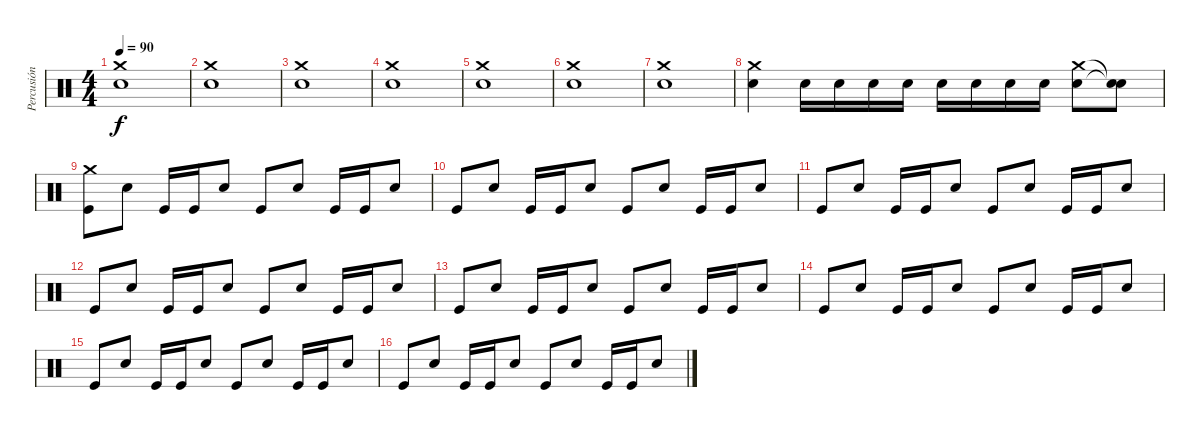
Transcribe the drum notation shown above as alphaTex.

\track ("Percusión" "Percusión") {instrument percussion}
\staff {score}
\articulation defaults
\ts (4 4)
\tempo 90
\clef neutral
\ks c
("Crash medium (hit)" "Electric Snare (hit)").1{dy f} |
("Crash medium (hit)" "Electric Snare (hit)").1 |
("Crash medium (hit)" "Electric Snare (hit)").1 |
("Crash medium (hit)" "Electric Snare (hit)").1 |
("Crash medium (hit)" "Electric Snare (hit)").1 |
("Crash medium (hit)" "Electric Snare (hit)").1 |
("Crash medium (hit)" "Electric Snare (hit)").1 |
("Crash medium (hit)" "Electric Snare (hit)").4 "Electric Snare (hit)".16 "Electric Snare (hit)".16 "Electric Snare (hit)".16 "Electric Snare (hit)".16 "Electric Snare (hit)".16 "Electric Snare (hit)".16 "Electric Snare (hit)".16 "Electric Snare (hit)".16 ("Crash medium (hit)" "Electric Snare (hit)").8 ("Snare (hit)"{t} "Snare (hit)"{t}).8 |
("Crash medium (hit)" "Kick (hit)").8 "Electric Snare (hit)".8 "Kick (hit)".16 "Kick (hit)".16 "Electric Snare (hit)".8 "Kick (hit)".8 "Electric Snare (hit)".8 "Kick (hit)".16 "Kick (hit)".16 "Electric Snare (hit)".8 |
"Kick (hit)".8 "Electric Snare (hit)".8 "Kick (hit)".16 "Kick (hit)".16 "Electric Snare (hit)".8 "Kick (hit)".8 "Electric Snare (hit)".8 "Kick (hit)".16 "Kick (hit)".16 "Electric Snare (hit)".8 |
"Kick (hit)".8 "Electric Snare (hit)".8 "Kick (hit)".16 "Kick (hit)".16 "Electric Snare (hit)".8 "Kick (hit)".8 "Electric Snare (hit)".8 "Kick (hit)".16 "Kick (hit)".16 "Electric Snare (hit)".8 |
"Kick (hit)".8 "Electric Snare (hit)".8 "Kick (hit)".16 "Kick (hit)".16 "Electric Snare (hit)".8 "Kick (hit)".8 "Electric Snare (hit)".8 "Kick (hit)".16 "Kick (hit)".16 "Electric Snare (hit)".8 |
"Kick (hit)".8 "Electric Snare (hit)".8 "Kick (hit)".16 "Kick (hit)".16 "Electric Snare (hit)".8 "Kick (hit)".8 "Electric Snare (hit)".8 "Kick (hit)".16 "Kick (hit)".16 "Electric Snare (hit)".8 |
"Kick (hit)".8 "Electric Snare (hit)".8 "Kick (hit)".16 "Kick (hit)".16 "Electric Snare (hit)".8 "Kick (hit)".8 "Electric Snare (hit)".8 "Kick (hit)".16 "Kick (hit)".16 "Electric Snare (hit)".8 |
"Kick (hit)".8 "Electric Snare (hit)".8 "Kick (hit)".16 "Kick (hit)".16 "Electric Snare (hit)".8 "Kick (hit)".8 "Electric Snare (hit)".8 "Kick (hit)".16 "Kick (hit)".16 "Electric Snare (hit)".8 |
"Kick (hit)".8 "Electric Snare (hit)".8 "Kick (hit)".16 "Kick (hit)".16 "Electric Snare (hit)".8 "Kick (hit)".8 "Electric Snare (hit)".8 "Kick (hit)".16 "Kick (hit)".16 "Electric Snare (hit)".8
